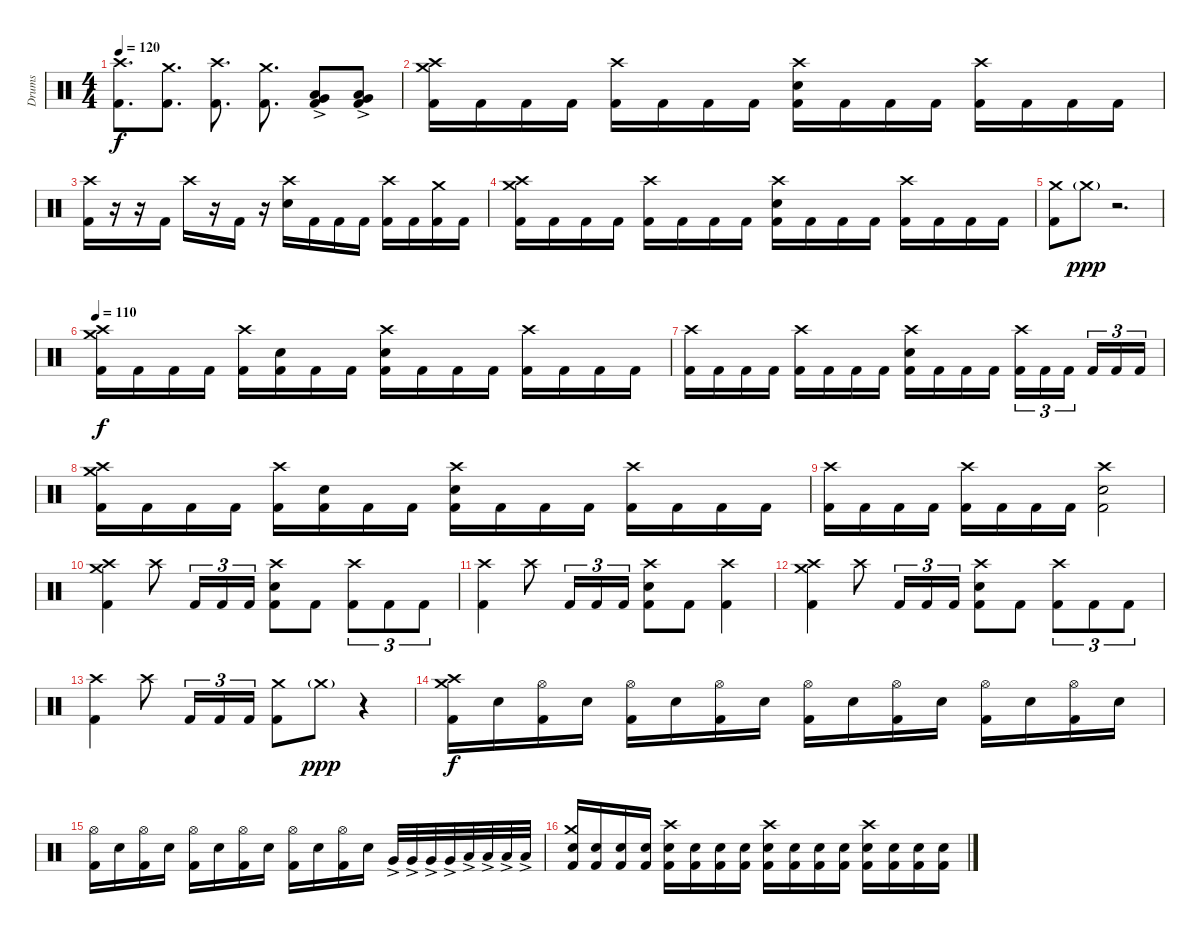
\track ("Drums" "Drums") {instrument percussion}
\staff {score}
\articulation defaults
\ts (4 4)
\tempo 120
\clef neutral
\ks c
("Crash high (hit)" "Kick (hit) 2").8{d dy f} ("Crash medium (hit)" "Kick (hit) 2").8{d} ("Crash high (hit)" "Kick (hit) 2").8{d} ("Crash medium (hit)" "Kick (hit) 2").8{d} ("Low Tom (hit)"{ac} "Very Low Tom (hit)"{ac} "Kick (hit) 2").8 ("Very Low Tom (hit)"{ac} "Low Floor Tom (hit)"{ac} "Kick (hit) 2").8 |
("Crash medium (hit)" "Crash high (hit)" "Kick (hit) 2").16 "Kick (hit) 2".16 "Kick (hit) 2".16 "Kick (hit) 2".16 ("Crash high (hit)" "Kick (hit) 2").16 "Kick (hit) 2".16 "Kick (hit) 2".16 "Kick (hit) 2".16 ("Crash high (hit)" "Electric Snare (hit)" "Kick (hit) 2").16 "Kick (hit) 2".16 "Kick (hit) 2".16 "Kick (hit) 2".16 ("Crash high (hit)" "Kick (hit) 2").16 "Kick (hit) 2".16 "Kick (hit) 2".16 "Kick (hit) 2".16 |
("Crash high (hit)" "Kick (hit) 2").16 r.16 r.16 "Kick (hit) 2".16 "Crash high (hit)".16 r.16 "Kick (hit) 2".16 r.16 ("Crash high (hit)" "Electric Snare (hit)").16 "Kick (hit) 2".16 "Kick (hit) 2".16 "Kick (hit) 2".16 ("Crash high (hit)" "Kick (hit) 2").16 "Kick (hit) 2".16 ("Crash medium (hit)" "Kick (hit) 2").16 "Kick (hit) 2".16 |
("Crash medium (hit)" "Crash high (hit)" "Kick (hit) 2").16 "Kick (hit) 2".16 "Kick (hit) 2".16 "Kick (hit) 2".16 ("Crash high (hit)" "Kick (hit) 2").16 "Kick (hit) 2".16 "Kick (hit) 2".16 "Kick (hit) 2".16 ("Crash high (hit)" "Electric Snare (hit)" "Kick (hit) 2").16 "Kick (hit) 2".16 "Kick (hit) 2".16 "Kick (hit) 2".16 ("Crash high (hit)" "Kick (hit) 2").16 "Kick (hit) 2".16 "Kick (hit) 2".16 "Kick (hit) 2".16 |
("Crash medium (hit)" "Kick (hit) 2").8 "Crash medium (hit)"{g}.8{dy ppp} r.2{d} |
\tempo 110
("Crash medium (hit)" "Crash high (hit)" "Kick (hit) 2").16{dy f} "Kick (hit) 2".16 "Kick (hit) 2".16 "Kick (hit) 2".16 ("Crash high (hit)" "Kick (hit) 2").16 ("Electric Snare (hit)" "Kick (hit) 2").16 "Kick (hit) 2".16 "Kick (hit) 2".16 ("Crash high (hit)" "Electric Snare (hit)" "Kick (hit) 2").16 "Kick (hit) 2".16 "Kick (hit) 2".16 "Kick (hit) 2".16 ("Crash high (hit)" "Kick (hit) 2").16 "Kick (hit) 2".16 "Kick (hit) 2".16 "Kick (hit) 2".16 |
("Crash high (hit)" "Kick (hit) 2").16 "Kick (hit) 2".16 "Kick (hit) 2".16 "Kick (hit) 2".16 ("Crash high (hit)" "Kick (hit) 2").16 "Kick (hit) 2".16 "Kick (hit) 2".16 "Kick (hit) 2".16 ("Crash high (hit)" "Electric Snare (hit)" "Kick (hit) 2").16 "Kick (hit) 2".16 "Kick (hit) 2".16 "Kick (hit) 2".16 ("Crash high (hit)" "Kick (hit) 2").16{tu (3 2)} "Kick (hit) 2".16{tu (3 2)} "Kick (hit) 2".16{tu (3 2)} "Kick (hit) 2".16{tu (3 2)} "Kick (hit) 2".16{tu (3 2)} "Kick (hit) 2".16{tu (3 2)} |
("Crash medium (hit)" "Crash high (hit)" "Kick (hit) 2").16 "Kick (hit) 2".16 "Kick (hit) 2".16 "Kick (hit) 2".16 ("Crash high (hit)" "Kick (hit) 2").16 ("Electric Snare (hit)" "Kick (hit) 2").16 "Kick (hit) 2".16 "Kick (hit) 2".16 ("Crash high (hit)" "Electric Snare (hit)" "Kick (hit) 2").16 "Kick (hit) 2".16 "Kick (hit) 2".16 "Kick (hit) 2".16 ("Crash high (hit)" "Kick (hit) 2").16 "Kick (hit) 2".16 "Kick (hit) 2".16 "Kick (hit) 2".16 |
("Crash high (hit)" "Kick (hit) 2").16 "Kick (hit) 2".16 "Kick (hit) 2".16 "Kick (hit) 2".16 ("Crash high (hit)" "Kick (hit) 2").16 "Kick (hit) 2".16 "Kick (hit) 2".16 "Kick (hit) 2".16 ("Crash high (hit)" "Electric Snare (hit)" "Kick (hit) 2").2 |
("Crash medium (hit)" "Crash high (hit)" "Kick (hit) 2").4 "Crash high (hit)".8 "Kick (hit) 2".16{tu (3 2)} "Kick (hit) 2".16{tu (3 2)} "Kick (hit) 2".16{tu (3 2)} ("Crash high (hit)" "Electric Snare (hit)" "Kick (hit) 2").8 "Kick (hit) 2".8 ("Crash high (hit)" "Kick (hit) 2").8{tu (3 2)} "Kick (hit) 2".8{tu (3 2)} "Kick (hit) 2".8{tu (3 2)} |
("Crash high (hit)" "Kick (hit) 2").4 "Crash high (hit)".8 "Kick (hit) 2".16{tu (3 2)} "Kick (hit) 2".16{tu (3 2)} "Kick (hit) 2".16{tu (3 2)} ("Crash high (hit)" "Electric Snare (hit)" "Kick (hit) 2").8 "Kick (hit) 2".8 ("Crash high (hit)" "Kick (hit) 2").4 |
("Crash medium (hit)" "Crash high (hit)" "Kick (hit) 2").4 "Crash high (hit)".8 "Kick (hit) 2".16{tu (3 2)} "Kick (hit) 2".16{tu (3 2)} "Kick (hit) 2".16{tu (3 2)} ("Crash high (hit)" "Electric Snare (hit)" "Kick (hit) 2").8 "Kick (hit) 2".8 ("Crash high (hit)" "Kick (hit) 2").8{tu (3 2)} "Kick (hit) 2".8{tu (3 2)} "Kick (hit) 2".8{tu (3 2)} |
("Crash high (hit)" "Kick (hit) 2").4 "Crash high (hit)".8 "Kick (hit) 2".16{tu (3 2)} "Kick (hit) 2".16{tu (3 2)} "Kick (hit) 2".16{tu (3 2)} ("Crash medium (hit)" "Kick (hit) 2").8 "Crash medium (hit)"{g}.8{dy ppp} r.4 |
("Crash medium (hit)" "Crash high (hit)" "Kick (hit) 2").16{dy f} "Electric Snare (hit)".16 ("Hi-Hat (open)" "Kick (hit) 2").16 "Electric Snare (hit)".16 ("Hi-Hat (open)" "Kick (hit) 2").16 "Electric Snare (hit)".16 ("Hi-Hat (open)" "Kick (hit) 2").16 "Electric Snare (hit)".16 ("Hi-Hat (open)" "Kick (hit) 2").16 "Electric Snare (hit)".16 ("Hi-Hat (open)" "Kick (hit) 2").16 "Electric Snare (hit)".16 ("Hi-Hat (open)" "Kick (hit) 2").16 "Electric Snare (hit)".16 ("Hi-Hat (open)" "Kick (hit) 2").16 "Electric Snare (hit)".16 |
("Hi-Hat (open)" "Kick (hit) 2").16 "Electric Snare (hit)".16 ("Hi-Hat (open)" "Kick (hit) 2").16 "Electric Snare (hit)".16 ("Hi-Hat (open)" "Kick (hit) 2").16 "Electric Snare (hit)".16 ("Hi-Hat (open)" "Kick (hit) 2").16 "Electric Snare (hit)".16 ("Hi-Hat (open)" "Kick (hit) 2").16 "Electric Snare (hit)".16 ("Hi-Hat (open)" "Kick (hit) 2").16 "Electric Snare (hit)".16 "Very Low Tom (hit)"{ac}.32 "Very Low Tom (hit)"{ac}.32 "Very Low Tom (hit)"{ac}.32 "Very Low Tom (hit)"{ac}.32 "Low Floor Tom (hit)"{ac}.32 "Low Floor Tom (hit)"{ac}.32 "Low Floor Tom (hit)"{ac}.32 "Low Floor Tom (hit)"{ac}.32 |
("Crash medium (hit)" "Electric Snare (hit)" "Kick (hit) 2").16 ("Electric Snare (hit)" "Kick (hit) 2").16 ("Electric Snare (hit)" "Kick (hit) 2").16 ("Electric Snare (hit)" "Kick (hit) 2").16 ("Crash high (hit)" "Electric Snare (hit)" "Kick (hit) 2").16 ("Electric Snare (hit)" "Kick (hit) 2").16 ("Electric Snare (hit)" "Kick (hit) 2").16 ("Electric Snare (hit)" "Kick (hit) 2").16 ("Crash high (hit)" "Electric Snare (hit)" "Kick (hit) 2").16 ("Electric Snare (hit)" "Kick (hit) 2").16 ("Electric Snare (hit)" "Kick (hit) 2").16 ("Electric Snare (hit)" "Kick (hit) 2").16 ("Crash high (hit)" "Electric Snare (hit)" "Kick (hit) 2").16 ("Electric Snare (hit)" "Kick (hit) 2").16 ("Electric Snare (hit)" "Kick (hit) 2").16 ("Electric Snare (hit)" "Kick (hit) 2").16
